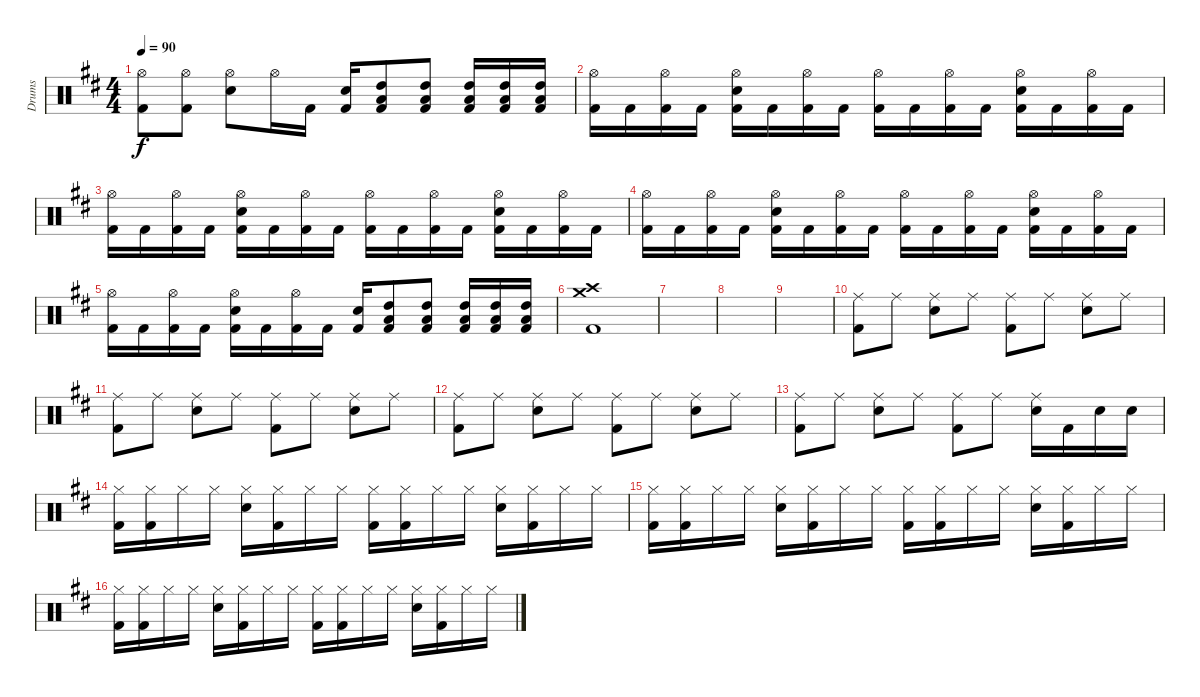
\track ("Drums" "Drums") {instrument percussion}
\staff {score}
\articulation defaults
\ts (4 4)
\tempo 90
\clef neutral
\ks bminor
("Hi-Hat (open)" "Kick (hit) 2").8{dy f} ("Hi-Hat (open)" "Kick (hit) 2").8 ("Hi-Hat (open)" "Snare (hit) 2").8 "Hi-Hat (open)".16 "Kick (hit) 2".16 ("Snare (hit) 2" "Kick (hit) 2").16 ("High Tom (hit)" "Low Tom (hit)" "Kick (hit) 2").8 ("High Tom (hit)" "Low Tom (hit)" "Kick (hit) 2").8 ("High Tom (hit)" "Low Tom (hit)" "Kick (hit) 2").16 ("High Tom (hit)" "Low Tom (hit)" "Kick (hit) 2").16 ("High Tom (hit)" "Low Tom (hit)" "Kick (hit) 2").16 |
("Hi-Hat (open)" "Kick (hit) 2").16 "Kick (hit) 2".16 ("Hi-Hat (open)" "Kick (hit) 2").16 "Kick (hit) 2".16 ("Hi-Hat (open)" "Snare (hit) 2" "Kick (hit) 2").16 "Kick (hit) 2".16 ("Hi-Hat (open)" "Kick (hit) 2").16 "Kick (hit) 2".16 ("Hi-Hat (open)" "Kick (hit) 2").16 "Kick (hit) 2".16 ("Hi-Hat (open)" "Kick (hit) 2").16 "Kick (hit) 2".16 ("Hi-Hat (open)" "Snare (hit) 2" "Kick (hit) 2").16 "Kick (hit) 2".16 ("Hi-Hat (open)" "Kick (hit) 2").16 "Kick (hit) 2".16 |
("Hi-Hat (open)" "Kick (hit) 2").16 "Kick (hit) 2".16 ("Hi-Hat (open)" "Kick (hit) 2").16 "Kick (hit) 2".16 ("Hi-Hat (open)" "Snare (hit) 2" "Kick (hit) 2").16 "Kick (hit) 2".16 ("Hi-Hat (open)" "Kick (hit) 2").16 "Kick (hit) 2".16 ("Hi-Hat (open)" "Kick (hit) 2").16 "Kick (hit) 2".16 ("Hi-Hat (open)" "Kick (hit) 2").16 "Kick (hit) 2".16 ("Hi-Hat (open)" "Snare (hit) 2" "Kick (hit) 2").16 "Kick (hit) 2".16 ("Hi-Hat (open)" "Kick (hit) 2").16 "Kick (hit) 2".16 |
("Hi-Hat (open)" "Kick (hit) 2").16 "Kick (hit) 2".16 ("Hi-Hat (open)" "Kick (hit) 2").16 "Kick (hit) 2".16 ("Hi-Hat (open)" "Snare (hit) 2" "Kick (hit) 2").16 "Kick (hit) 2".16 ("Hi-Hat (open)" "Kick (hit) 2").16 "Kick (hit) 2".16 ("Hi-Hat (open)" "Kick (hit) 2").16 "Kick (hit) 2".16 ("Hi-Hat (open)" "Kick (hit) 2").16 "Kick (hit) 2".16 ("Hi-Hat (open)" "Snare (hit) 2" "Kick (hit) 2").16 "Kick (hit) 2".16 ("Hi-Hat (open)" "Kick (hit) 2").16 "Kick (hit) 2".16 |
("Hi-Hat (open)" "Kick (hit) 2").16 "Kick (hit) 2".16 ("Hi-Hat (open)" "Kick (hit) 2").16 "Kick (hit) 2".16 ("Hi-Hat (open)" "Snare (hit) 2" "Kick (hit) 2").16 "Kick (hit) 2".16 ("Hi-Hat (open)" "Kick (hit) 2").16 "Kick (hit) 2".16 ("Snare (hit) 2" "Kick (hit) 2").16 ("High Tom (hit)" "Low Tom (hit)" "Kick (hit) 2").8 ("High Tom (hit)" "Low Tom (hit)" "Kick (hit) 2").8 ("High Tom (hit)" "Low Tom (hit)" "Kick (hit) 2").16 ("High Tom (hit)" "Low Tom (hit)" "Kick (hit) 2").16 ("High Tom (hit)" "Low Tom (hit)" "Kick (hit) 2").16 |
("Crash high (hit)" "Crash medium (hit)" "Kick (hit) 2").1{volume 3} |
|
|
|
("Ride (middle)" "Kick (hit) 2").8 "Ride (middle)".8 ("Ride (middle)" "Snare (hit) 2").8 "Ride (middle)".8 ("Ride (middle)" "Kick (hit) 2").8 "Ride (middle)".8 ("Ride (middle)" "Snare (hit) 2").8 "Ride (middle)".8 |
("Ride (middle)" "Kick (hit) 2").8 "Ride (middle)".8 ("Ride (middle)" "Snare (hit) 2").8 "Ride (middle)".8 ("Ride (middle)" "Kick (hit) 2").8 "Ride (middle)".8 ("Ride (middle)" "Snare (hit) 2").8 "Ride (middle)".8 |
("Ride (middle)" "Kick (hit) 2").8 "Ride (middle)".8 ("Ride (middle)" "Snare (hit) 2").8 "Ride (middle)".8 ("Ride (middle)" "Kick (hit) 2").8 "Ride (middle)".8 ("Ride (middle)" "Snare (hit) 2").8 "Ride (middle)".8 |
("Ride (middle)" "Kick (hit) 2").8 "Ride (middle)".8 ("Ride (middle)" "Snare (hit) 2").8 "Ride (middle)".8 ("Ride (middle)" "Kick (hit) 2").8 "Ride (middle)".8 ("Ride (middle)" "Snare (hit) 2").16 "Kick (hit) 2".16 "Snare (hit) 2".16 "Snare (hit) 2".16 |
("Hi-Hat (closed)" "Kick (hit) 2").16 ("Hi-Hat (closed)" "Kick (hit) 2").16 "Hi-Hat (closed)".16 "Hi-Hat (closed)".16 ("Hi-Hat (closed)" "Snare (hit) 2").16 ("Hi-Hat (closed)" "Kick (hit) 2").16 "Hi-Hat (closed)".16 "Hi-Hat (closed)".16 ("Hi-Hat (closed)" "Kick (hit) 2").16 ("Hi-Hat (closed)" "Kick (hit) 2").16 "Hi-Hat (closed)".16 "Hi-Hat (closed)".16 ("Hi-Hat (closed)" "Snare (hit) 2").16 ("Hi-Hat (closed)" "Kick (hit) 2").16 "Hi-Hat (closed)".16 "Hi-Hat (closed)".16 |
("Hi-Hat (closed)" "Kick (hit) 2").16 ("Hi-Hat (closed)" "Kick (hit) 2").16 "Hi-Hat (closed)".16 "Hi-Hat (closed)".16 ("Hi-Hat (closed)" "Snare (hit) 2").16 ("Hi-Hat (closed)" "Kick (hit) 2").16 "Hi-Hat (closed)".16 "Hi-Hat (closed)".16 ("Hi-Hat (closed)" "Kick (hit) 2").16 ("Hi-Hat (closed)" "Kick (hit) 2").16 "Hi-Hat (closed)".16 "Hi-Hat (closed)".16 ("Hi-Hat (closed)" "Snare (hit) 2").16 ("Hi-Hat (closed)" "Kick (hit) 2").16 "Hi-Hat (closed)".16 "Hi-Hat (closed)".16 |
("Hi-Hat (closed)" "Kick (hit) 2").16 ("Hi-Hat (closed)" "Kick (hit) 2").16 "Hi-Hat (closed)".16 "Hi-Hat (closed)".16 ("Hi-Hat (closed)" "Snare (hit) 2").16 ("Hi-Hat (closed)" "Kick (hit) 2").16 "Hi-Hat (closed)".16 "Hi-Hat (closed)".16 ("Hi-Hat (closed)" "Kick (hit) 2").16 ("Hi-Hat (closed)" "Kick (hit) 2").16 "Hi-Hat (closed)".16 "Hi-Hat (closed)".16 ("Hi-Hat (closed)" "Snare (hit) 2").16 ("Hi-Hat (closed)" "Kick (hit) 2").16 "Hi-Hat (closed)".16 "Hi-Hat (closed)".16
